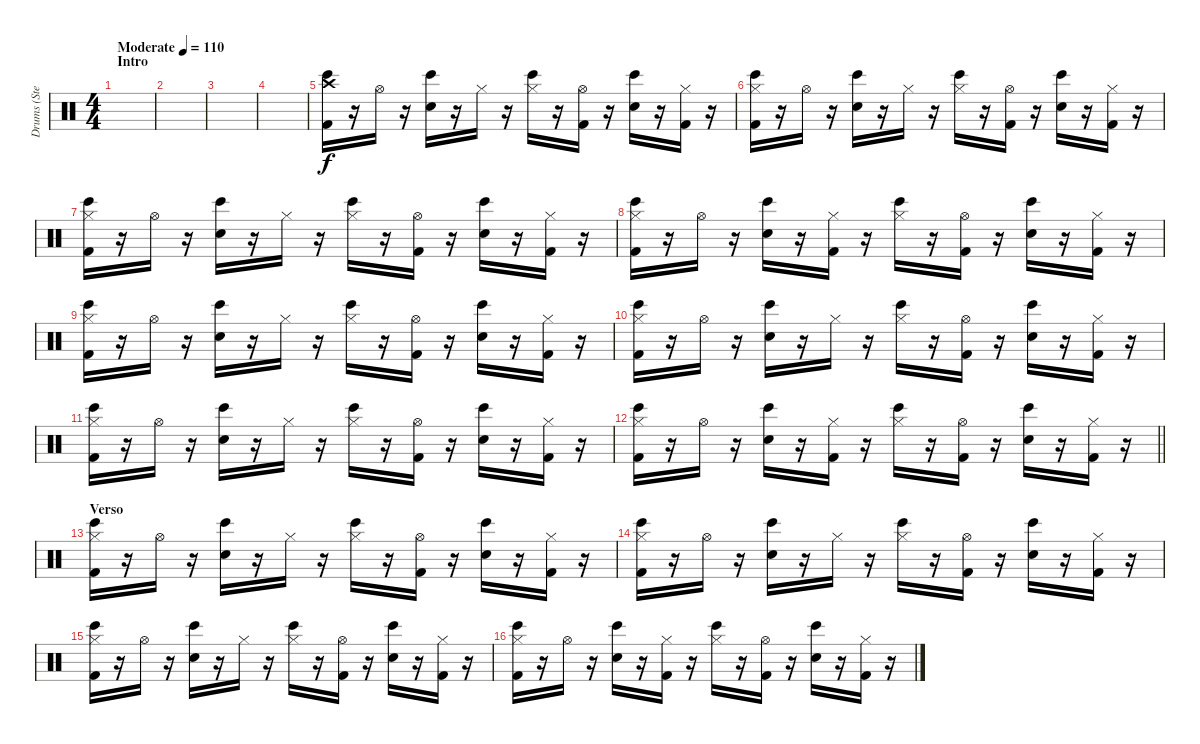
\track ("Drums (Stephen Perkins)" "Drums (Ste") {instrument percussion}
\staff {score}
\articulation defaults
\ts (4 4)
\section ("" "Intro")
\tempo (110 "Moderate")
\clef neutral
\ks c
|
|
|
|
("Crash high (hit)" "Bongo High (hit)" "Kick (hit) 2").16 r.16 "Hi-Hat (open)".16 r.16 ("Bongo High (hit)" "Snare (hit) 2").16 r.16 "Hi-Hat (closed)".16 r.16 ("Hi-Hat (closed)" "Bongo High (hit)").16 r.16 ("Hi-Hat (open)" "Kick (hit) 2").16 r.16 ("Bongo High (hit)" "Snare (hit) 2").16 r.16 ("Hi-Hat (closed)" "Kick (hit) 2").16 r.16 |
("Hi-Hat (closed)" "Bongo High (hit)" "Kick (hit) 2").16 r.16 "Hi-Hat (open)".16 r.16 ("Bongo High (hit)" "Snare (hit) 2").16 r.16 "Hi-Hat (closed)".16 r.16 ("Hi-Hat (closed)" "Bongo High (hit)").16 r.16 ("Hi-Hat (open)" "Kick (hit) 2").16 r.16 ("Bongo High (hit)" "Snare (hit) 2").16 r.16 ("Hi-Hat (closed)" "Kick (hit) 2").16 r.16 |
("Hi-Hat (closed)" "Bongo High (hit)" "Kick (hit) 2").16 r.16 "Hi-Hat (open)".16 r.16 ("Bongo High (hit)" "Snare (hit) 2").16 r.16 "Hi-Hat (closed)".16 r.16 ("Hi-Hat (closed)" "Bongo High (hit)").16 r.16 ("Hi-Hat (open)" "Kick (hit) 2").16 r.16 ("Bongo High (hit)" "Snare (hit) 2").16 r.16 ("Hi-Hat (closed)" "Kick (hit) 2").16 r.16 |
("Hi-Hat (closed)" "Bongo High (hit)" "Kick (hit) 2").16 r.16 "Hi-Hat (open)".16 r.16 ("Bongo High (hit)" "Snare (hit) 2").16 r.16 ("Hi-Hat (closed)" "Kick (hit) 2").16 r.16 ("Hi-Hat (closed)" "Bongo High (hit)").16 r.16 ("Hi-Hat (open)" "Kick (hit) 2").16 r.16 ("Bongo High (hit)" "Snare (hit) 2").16 r.16 ("Hi-Hat (closed)" "Kick (hit) 2").16 r.16 |
("Hi-Hat (closed)" "Bongo High (hit)" "Kick (hit) 2").16 r.16 "Hi-Hat (open)".16 r.16 ("Bongo High (hit)" "Snare (hit) 2").16 r.16 "Hi-Hat (closed)".16 r.16 ("Hi-Hat (closed)" "Bongo High (hit)").16 r.16 ("Hi-Hat (open)" "Kick (hit) 2").16 r.16 ("Bongo High (hit)" "Snare (hit) 2").16 r.16 ("Hi-Hat (closed)" "Kick (hit) 2").16 r.16 |
("Hi-Hat (closed)" "Bongo High (hit)" "Kick (hit) 2").16 r.16 "Hi-Hat (open)".16 r.16 ("Bongo High (hit)" "Snare (hit) 2").16 r.16 "Hi-Hat (closed)".16 r.16 ("Hi-Hat (closed)" "Bongo High (hit)").16 r.16 ("Hi-Hat (open)" "Kick (hit) 2").16 r.16 ("Bongo High (hit)" "Snare (hit) 2").16 r.16 ("Hi-Hat (closed)" "Kick (hit) 2").16 r.16 |
("Hi-Hat (closed)" "Bongo High (hit)" "Kick (hit) 2").16 r.16 "Hi-Hat (open)".16 r.16 ("Bongo High (hit)" "Snare (hit) 2").16 r.16 "Hi-Hat (closed)".16 r.16 ("Hi-Hat (closed)" "Bongo High (hit)").16 r.16 ("Hi-Hat (open)" "Kick (hit) 2").16 r.16 ("Bongo High (hit)" "Snare (hit) 2").16 r.16 ("Hi-Hat (closed)" "Kick (hit) 2").16 r.16 |
\barLineRight lightlight
("Hi-Hat (closed)" "Bongo High (hit)" "Kick (hit) 2").16 r.16 "Hi-Hat (open)".16 r.16 ("Bongo High (hit)" "Snare (hit) 2").16 r.16 ("Hi-Hat (closed)" "Kick (hit) 2").16 r.16 ("Hi-Hat (closed)" "Bongo High (hit)").16 r.16 ("Hi-Hat (open)" "Kick (hit) 2").16 r.16 ("Bongo High (hit)" "Snare (hit) 2").16 r.16 ("Hi-Hat (closed)" "Kick (hit) 2").16 r.16 |
\section ("" "Verso")
("Hi-Hat (closed)" "Bongo High (hit)" "Kick (hit) 2").16 r.16 "Hi-Hat (open)".16 r.16 ("Bongo High (hit)" "Snare (hit) 2").16 r.16 "Hi-Hat (closed)".16 r.16 ("Hi-Hat (closed)" "Bongo High (hit)").16 r.16 ("Hi-Hat (open)" "Kick (hit) 2").16 r.16 ("Bongo High (hit)" "Snare (hit) 2").16 r.16 ("Hi-Hat (closed)" "Kick (hit) 2").16 r.16 |
("Hi-Hat (closed)" "Bongo High (hit)" "Kick (hit) 2").16 r.16 "Hi-Hat (open)".16 r.16 ("Bongo High (hit)" "Snare (hit) 2").16 r.16 "Hi-Hat (closed)".16 r.16 ("Hi-Hat (closed)" "Bongo High (hit)").16 r.16 ("Hi-Hat (open)" "Kick (hit) 2").16 r.16 ("Bongo High (hit)" "Snare (hit) 2").16 r.16 ("Hi-Hat (closed)" "Kick (hit) 2").16 r.16 |
("Hi-Hat (closed)" "Bongo High (hit)" "Kick (hit) 2").16 r.16 "Hi-Hat (open)".16 r.16 ("Bongo High (hit)" "Snare (hit) 2").16 r.16 "Hi-Hat (closed)".16 r.16 ("Hi-Hat (closed)" "Bongo High (hit)").16 r.16 ("Hi-Hat (open)" "Kick (hit) 2").16 r.16 ("Bongo High (hit)" "Snare (hit) 2").16 r.16 ("Hi-Hat (closed)" "Kick (hit) 2").16 r.16 |
("Hi-Hat (closed)" "Bongo High (hit)" "Kick (hit) 2").16 r.16 "Hi-Hat (open)".16 r.16 ("Bongo High (hit)" "Snare (hit) 2").16 r.16 ("Hi-Hat (closed)" "Kick (hit) 2").16 r.16 ("Hi-Hat (closed)" "Bongo High (hit)").16 r.16 ("Hi-Hat (open)" "Kick (hit) 2").16 r.16 ("Bongo High (hit)" "Snare (hit) 2").16 r.16 ("Hi-Hat (closed)" "Kick (hit) 2").16 r.16
